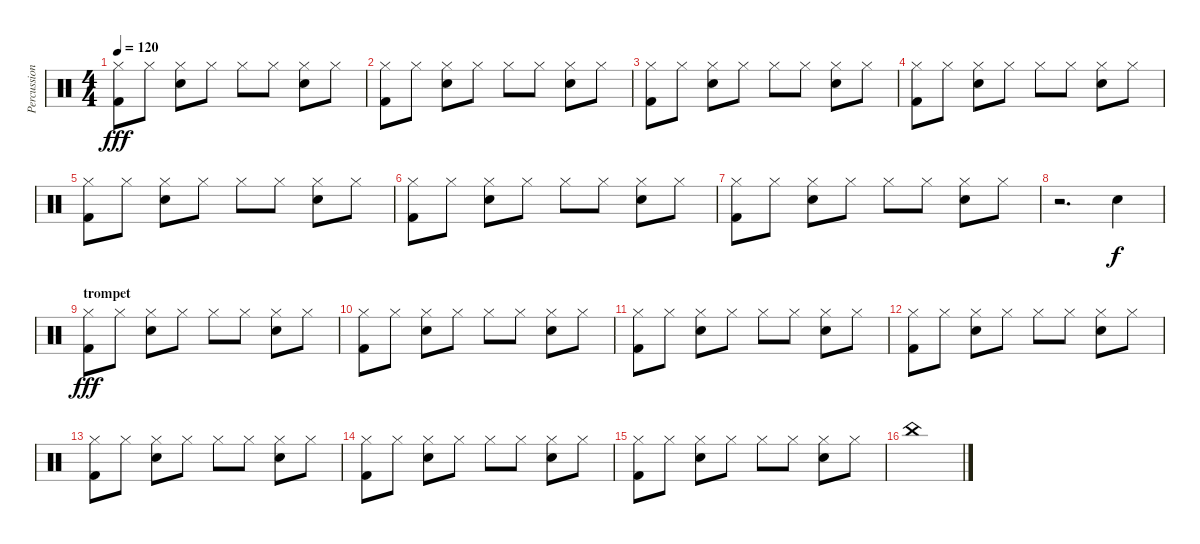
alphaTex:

\track ("Percussions" "Percussion") {instrument percussion}
\staff {score}
\articulation defaults
\ts (4 4)
\tempo 120
\clef neutral
\ks c
("Hi-Hat (closed)" "Kick (hit) 2").8{dy fff} "Hi-Hat (closed)".8 ("Hi-Hat (closed)" "Electric Snare (hit)").8 "Hi-Hat (closed)".8 "Hi-Hat (closed)".8 "Hi-Hat (closed)".8 ("Hi-Hat (closed)" "Electric Snare (hit)").8 "Hi-Hat (closed)".8 |
("Hi-Hat (closed)" "Kick (hit) 2").8 "Hi-Hat (closed)".8 ("Hi-Hat (closed)" "Electric Snare (hit)").8 "Hi-Hat (closed)".8 "Hi-Hat (closed)".8 "Hi-Hat (closed)".8 ("Hi-Hat (closed)" "Electric Snare (hit)").8 "Hi-Hat (closed)".8 |
("Hi-Hat (closed)" "Kick (hit) 2").8 "Hi-Hat (closed)".8 ("Hi-Hat (closed)" "Electric Snare (hit)").8 "Hi-Hat (closed)".8 "Hi-Hat (closed)".8 "Hi-Hat (closed)".8 ("Hi-Hat (closed)" "Electric Snare (hit)").8 "Hi-Hat (closed)".8 |
("Hi-Hat (closed)" "Kick (hit) 2").8 "Hi-Hat (closed)".8 ("Hi-Hat (closed)" "Electric Snare (hit)").8 "Hi-Hat (closed)".8 "Hi-Hat (closed)".8 "Hi-Hat (closed)".8 ("Hi-Hat (closed)" "Electric Snare (hit)").8 "Hi-Hat (closed)".8 |
("Hi-Hat (closed)" "Kick (hit) 2").8 "Hi-Hat (closed)".8 ("Hi-Hat (closed)" "Electric Snare (hit)").8 "Hi-Hat (closed)".8 "Hi-Hat (closed)".8 "Hi-Hat (closed)".8 ("Hi-Hat (closed)" "Electric Snare (hit)").8 "Hi-Hat (closed)".8 |
("Hi-Hat (closed)" "Kick (hit) 2").8 "Hi-Hat (closed)".8 ("Hi-Hat (closed)" "Electric Snare (hit)").8 "Hi-Hat (closed)".8 "Hi-Hat (closed)".8 "Hi-Hat (closed)".8 ("Hi-Hat (closed)" "Electric Snare (hit)").8 "Hi-Hat (closed)".8 |
("Hi-Hat (closed)" "Kick (hit) 2").8 "Hi-Hat (closed)".8 ("Hi-Hat (closed)" "Electric Snare (hit)").8 "Hi-Hat (closed)".8 "Hi-Hat (closed)".8 "Hi-Hat (closed)".8 ("Hi-Hat (closed)" "Electric Snare (hit)").8 "Hi-Hat (closed)".8 |
r.2{d} "Electric Snare (hit)".4{dy f} |
\section ("" "trompet")
("Hi-Hat (closed)" "Kick (hit) 2").8{dy fff} "Hi-Hat (closed)".8 ("Hi-Hat (closed)" "Electric Snare (hit)").8 "Hi-Hat (closed)".8 "Hi-Hat (closed)".8 "Hi-Hat (closed)".8 ("Hi-Hat (closed)" "Electric Snare (hit)").8 "Hi-Hat (closed)".8 |
("Hi-Hat (closed)" "Kick (hit) 2").8 "Hi-Hat (closed)".8 ("Hi-Hat (closed)" "Electric Snare (hit)").8 "Hi-Hat (closed)".8 "Hi-Hat (closed)".8 "Hi-Hat (closed)".8 ("Hi-Hat (closed)" "Electric Snare (hit)").8 "Hi-Hat (closed)".8 |
("Hi-Hat (closed)" "Kick (hit) 2").8 "Hi-Hat (closed)".8 ("Hi-Hat (closed)" "Electric Snare (hit)").8 "Hi-Hat (closed)".8 "Hi-Hat (closed)".8 "Hi-Hat (closed)".8 ("Hi-Hat (closed)" "Electric Snare (hit)").8 "Hi-Hat (closed)".8 |
("Hi-Hat (closed)" "Kick (hit) 2").8 "Hi-Hat (closed)".8 ("Hi-Hat (closed)" "Electric Snare (hit)").8 "Hi-Hat (closed)".8 "Hi-Hat (closed)".8 "Hi-Hat (closed)".8 ("Hi-Hat (closed)" "Electric Snare (hit)").8 "Hi-Hat (closed)".8 |
("Hi-Hat (closed)" "Kick (hit) 2").8 "Hi-Hat (closed)".8 ("Hi-Hat (closed)" "Electric Snare (hit)").8 "Hi-Hat (closed)".8 "Hi-Hat (closed)".8 "Hi-Hat (closed)".8 ("Hi-Hat (closed)" "Electric Snare (hit)").8 "Hi-Hat (closed)".8 |
("Hi-Hat (closed)" "Kick (hit) 2").8 "Hi-Hat (closed)".8 ("Hi-Hat (closed)" "Electric Snare (hit)").8 "Hi-Hat (closed)".8 "Hi-Hat (closed)".8 "Hi-Hat (closed)".8 ("Hi-Hat (closed)" "Electric Snare (hit)").8 "Hi-Hat (closed)".8 |
("Hi-Hat (closed)" "Kick (hit) 2").8 "Hi-Hat (closed)".8 ("Hi-Hat (closed)" "Electric Snare (hit)").8 "Hi-Hat (closed)".8 "Hi-Hat (closed)".8 "Hi-Hat (closed)".8 ("Hi-Hat (closed)" "Electric Snare (hit)").8 "Hi-Hat (closed)".8 |
"China (hit)".1
